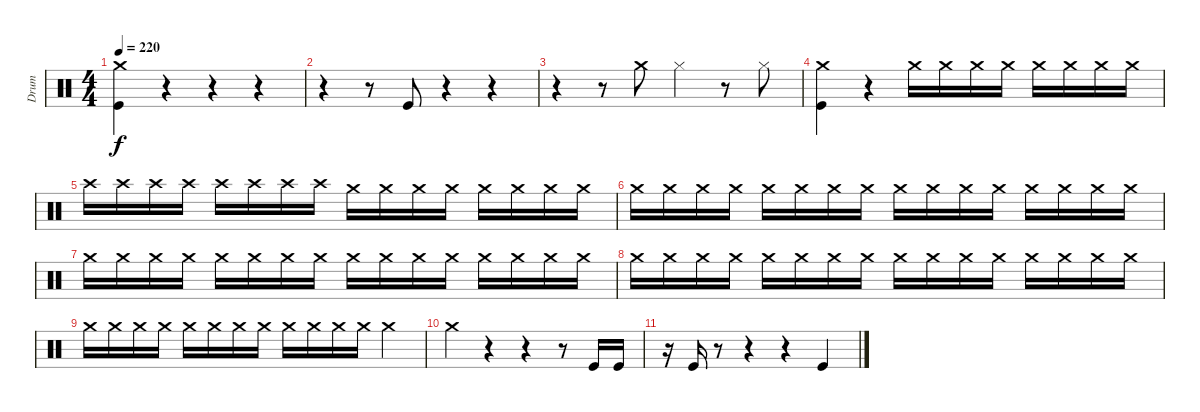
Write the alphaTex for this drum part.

\track ("Drum" "Drum") {instrument percussion}
\staff {score}
\articulation defaults
\ts (4 4)
\tempo 220
\clef neutral
\ks c
("Crash medium (hit)" "Kick (hit)").4{dy f} r.4 r.4 r.4 |
r.4 r.8 "Kick (hit)".8 r.4 r.4 |
r.4 r.8 "Crash medium (hit)".8 "Hi-Hat (closed)".4 r.8 "Hi-Hat (closed)".8 |
("Crash medium (hit)" "Kick (hit)").4 r.4 "Crash medium (hit)".16 "Crash medium (hit)".16 "Crash medium (hit)".16 "Crash medium (hit)".16 "Crash medium (hit)".16 "Crash medium (hit)".16 "Crash medium (hit)".16 "Crash medium (hit)".16 |
"Crash high (hit)".16 "Crash high (hit)".16 "Crash high (hit)".16 "Crash high (hit)".16 "Crash high (hit)".16 "Crash high (hit)".16 "Crash high (hit)".16 "Crash high (hit)".16 "Crash medium (hit)".16 "Crash medium (hit)".16 "Crash medium (hit)".16 "Crash medium (hit)".16 "Crash medium (hit)".16 "Crash medium (hit)".16 "Crash medium (hit)".16 "Crash medium (hit)".16 |
"Crash medium (hit)".16 "Crash medium (hit)".16 "Crash medium (hit)".16 "Crash medium (hit)".16 "Crash medium (hit)".16 "Crash medium (hit)".16 "Crash medium (hit)".16 "Crash medium (hit)".16 "Crash medium (hit)".16 "Crash medium (hit)".16 "Crash medium (hit)".16 "Crash medium (hit)".16 "Crash medium (hit)".16 "Crash medium (hit)".16 "Crash medium (hit)".16 "Crash medium (hit)".16 |
"Crash medium (hit)".16 "Crash medium (hit)".16 "Crash medium (hit)".16 "Crash medium (hit)".16 "Crash medium (hit)".16 "Crash medium (hit)".16 "Crash medium (hit)".16 "Crash medium (hit)".16 "Crash medium (hit)".16 "Crash medium (hit)".16 "Crash medium (hit)".16 "Crash medium (hit)".16 "Crash medium (hit)".16 "Crash medium (hit)".16 "Crash medium (hit)".16 "Crash medium (hit)".16 |
"Crash medium (hit)".16 "Crash medium (hit)".16 "Crash medium (hit)".16 "Crash medium (hit)".16 "Crash medium (hit)".16 "Crash medium (hit)".16 "Crash medium (hit)".16 "Crash medium (hit)".16 "Crash medium (hit)".16 "Crash medium (hit)".16 "Crash medium (hit)".16 "Crash medium (hit)".16 "Crash medium (hit)".16 "Crash medium (hit)".16 "Crash medium (hit)".16 "Crash medium (hit)".16 |
"Crash medium (hit)".16 "Crash medium (hit)".16 "Crash medium (hit)".16 "Crash medium (hit)".16 "Crash medium (hit)".16 "Crash medium (hit)".16 "Crash medium (hit)".16 "Crash medium (hit)".16 "Crash medium (hit)".16 "Crash medium (hit)".16 "Crash medium (hit)".16 "Crash medium (hit)".16 "Crash medium (hit)".4 |
"Crash medium (hit)".4 r.4 r.4 r.8 "Kick (hit)".16 "Kick (hit)".16 |
r.16 "Kick (hit)".16 r.8 r.4 r.4 "Kick (hit)".4
